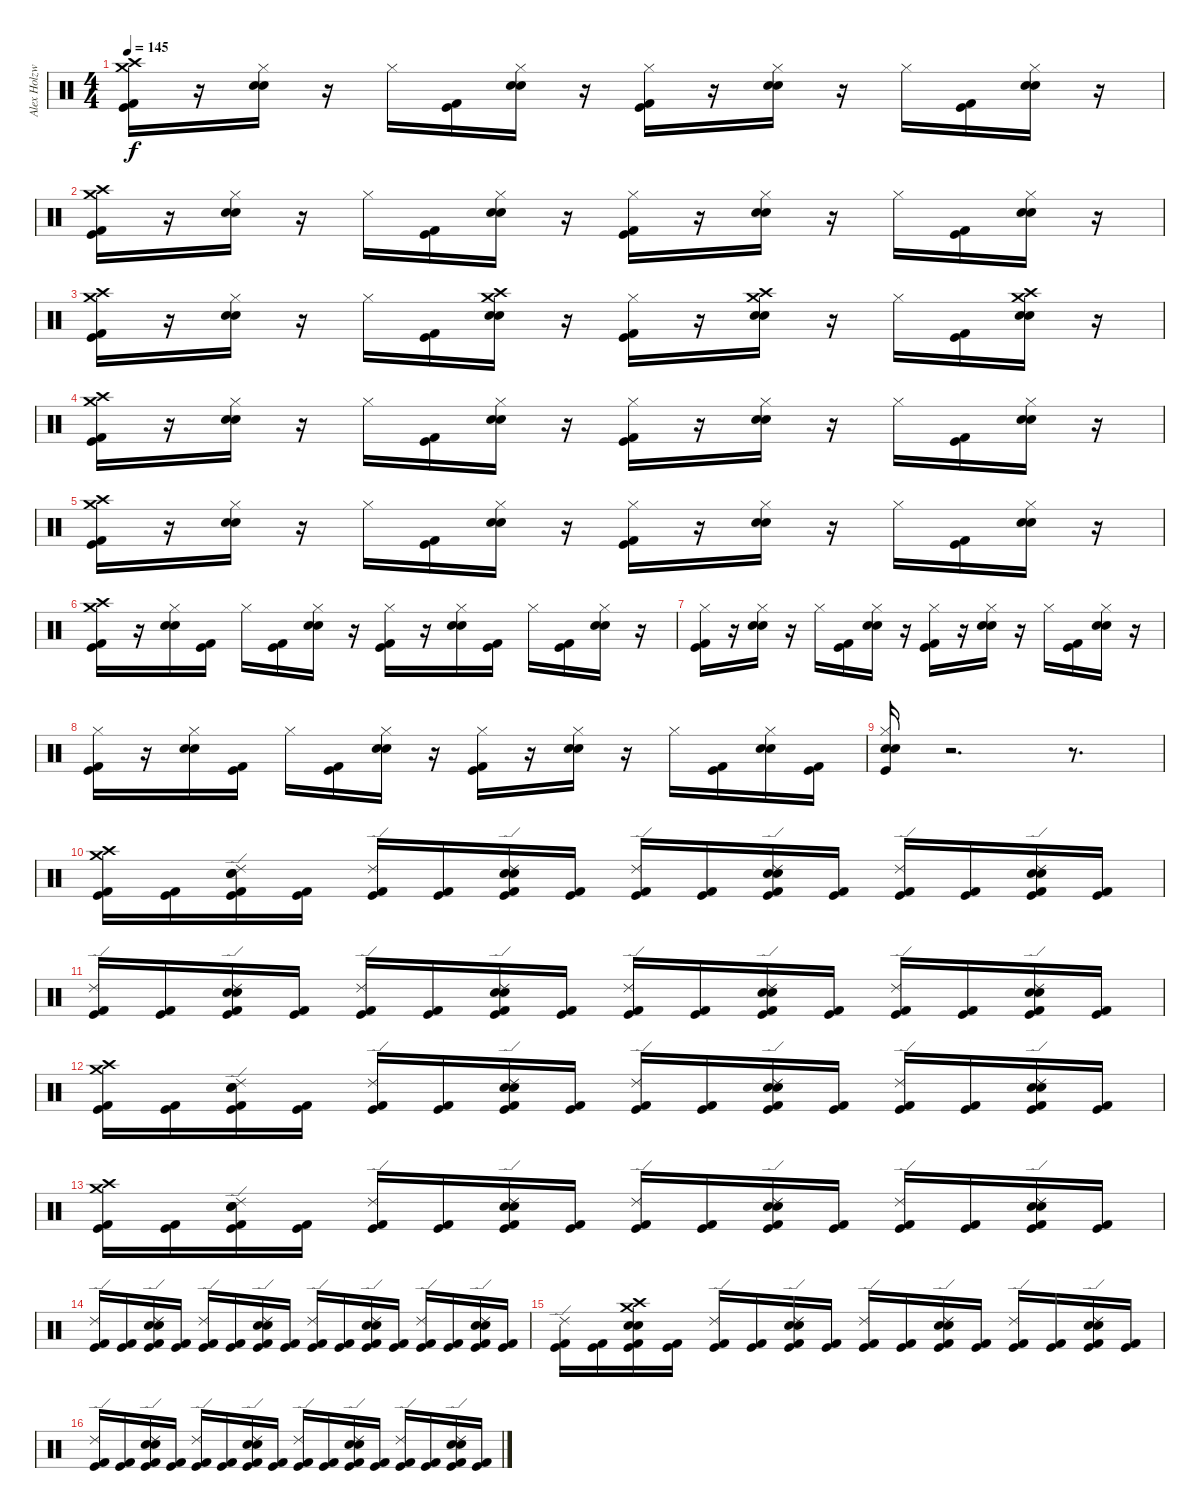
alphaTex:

\track ("Alex Holzwarth" "Alex Holzw") {instrument percussion}
\staff {score}
\articulation defaults
\ts (4 4)
\tempo 145
\clef neutral
\ks c
("Crash medium (hit)" "Crash high (hit)" "Kick (hit) 2" "Kick (hit)").16{dy f} r.16 ("Hi-Hat (closed)" "Electric Snare (hit)" "Snare (hit) 2").16 r.16 "Hi-Hat (closed)".16 ("Kick (hit) 2" "Kick (hit)").16 ("Electric Snare (hit)" "Snare (hit) 2" "Hi-Hat (closed)").16 r.16 ("Hi-Hat (closed)" "Kick (hit) 2" "Kick (hit)").16 r.16 ("Hi-Hat (closed)" "Electric Snare (hit)" "Snare (hit) 2").16 r.16 "Hi-Hat (closed)".16 ("Kick (hit) 2" "Kick (hit)").16 ("Electric Snare (hit)" "Snare (hit) 2" "Hi-Hat (closed)").16 r.16 |
("Crash medium (hit)" "Crash high (hit)" "Kick (hit) 2" "Kick (hit)").16 r.16 ("Hi-Hat (closed)" "Electric Snare (hit)" "Snare (hit) 2").16 r.16 "Hi-Hat (closed)".16 ("Kick (hit) 2" "Kick (hit)").16 ("Electric Snare (hit)" "Snare (hit) 2" "Hi-Hat (closed)").16 r.16 ("Hi-Hat (closed)" "Kick (hit) 2" "Kick (hit)").16 r.16 ("Hi-Hat (closed)" "Electric Snare (hit)" "Snare (hit) 2").16 r.16 "Hi-Hat (closed)".16 ("Kick (hit) 2" "Kick (hit)").16 ("Electric Snare (hit)" "Snare (hit) 2" "Hi-Hat (closed)").16 r.16 |
("Crash medium (hit)" "Crash high (hit)" "Kick (hit) 2" "Kick (hit)").16 r.16 ("Hi-Hat (closed)" "Electric Snare (hit)" "Snare (hit) 2").16 r.16 "Hi-Hat (closed)".16 ("Kick (hit) 2" "Kick (hit)").16 ("Crash medium (hit)" "Crash high (hit)" "Electric Snare (hit)" "Snare (hit) 2").16 r.16 ("Hi-Hat (closed)" "Kick (hit) 2" "Kick (hit)").16 r.16 ("Crash medium (hit)" "Crash high (hit)" "Electric Snare (hit)" "Snare (hit) 2").16 r.16 "Hi-Hat (closed)".16 ("Kick (hit) 2" "Kick (hit)").16 ("Crash medium (hit)" "Crash high (hit)" "Electric Snare (hit)" "Snare (hit) 2").16 r.16 |
("Crash medium (hit)" "Crash high (hit)" "Kick (hit) 2" "Kick (hit)").16 r.16 ("Hi-Hat (closed)" "Electric Snare (hit)" "Snare (hit) 2").16 r.16 "Hi-Hat (closed)".16 ("Kick (hit) 2" "Kick (hit)").16 ("Electric Snare (hit)" "Snare (hit) 2" "Hi-Hat (closed)").16 r.16 ("Hi-Hat (closed)" "Kick (hit) 2" "Kick (hit)").16 r.16 ("Hi-Hat (closed)" "Electric Snare (hit)" "Snare (hit) 2").16 r.16 "Hi-Hat (closed)".16 ("Kick (hit) 2" "Kick (hit)").16 ("Electric Snare (hit)" "Snare (hit) 2" "Hi-Hat (closed)").16 r.16 |
("Crash medium (hit)" "Crash high (hit)" "Kick (hit) 2" "Kick (hit)").16 r.16 ("Hi-Hat (closed)" "Electric Snare (hit)" "Snare (hit) 2").16 r.16 "Hi-Hat (closed)".16 ("Kick (hit) 2" "Kick (hit)").16 ("Electric Snare (hit)" "Snare (hit) 2" "Hi-Hat (closed)").16 r.16 ("Hi-Hat (closed)" "Kick (hit) 2" "Kick (hit)").16 r.16 ("Hi-Hat (closed)" "Electric Snare (hit)" "Snare (hit) 2").16 r.16 "Hi-Hat (closed)".16 ("Kick (hit) 2" "Kick (hit)").16 ("Electric Snare (hit)" "Snare (hit) 2" "Hi-Hat (closed)").16 r.16 |
("Crash medium (hit)" "Crash high (hit)" "Kick (hit) 2" "Kick (hit)").16 r.16 ("Hi-Hat (closed)" "Electric Snare (hit)" "Snare (hit) 2").16 ("Kick (hit) 2" "Kick (hit)").16 "Hi-Hat (closed)".16 ("Kick (hit) 2" "Kick (hit)").16 ("Electric Snare (hit)" "Snare (hit) 2" "Hi-Hat (closed)").16 r.16 ("Hi-Hat (closed)" "Kick (hit) 2" "Kick (hit)").16 r.16 ("Hi-Hat (closed)" "Electric Snare (hit)" "Snare (hit) 2").16 ("Kick (hit) 2" "Kick (hit)").16 "Hi-Hat (closed)".16 ("Kick (hit) 2" "Kick (hit)").16 ("Electric Snare (hit)" "Snare (hit) 2" "Hi-Hat (closed)").16 r.16 |
("Hi-Hat (closed)" "Kick (hit) 2" "Kick (hit)").16 r.16 ("Hi-Hat (closed)" "Electric Snare (hit)" "Snare (hit) 2").16 r.16 "Hi-Hat (closed)".16 ("Kick (hit) 2" "Kick (hit)").16 ("Electric Snare (hit)" "Snare (hit) 2" "Hi-Hat (closed)").16 r.16 ("Hi-Hat (closed)" "Kick (hit) 2" "Kick (hit)").16 r.16 ("Hi-Hat (closed)" "Electric Snare (hit)" "Snare (hit) 2").16 r.16 "Hi-Hat (closed)".16 ("Kick (hit) 2" "Kick (hit)").16 ("Electric Snare (hit)" "Snare (hit) 2" "Hi-Hat (closed)").16 r.16 |
("Hi-Hat (closed)" "Kick (hit) 2" "Kick (hit)").16 r.16 ("Hi-Hat (closed)" "Electric Snare (hit)" "Snare (hit) 2").16 ("Kick (hit) 2" "Kick (hit)").16 "Hi-Hat (closed)".16 ("Kick (hit) 2" "Kick (hit)").16 ("Electric Snare (hit)" "Snare (hit) 2" "Hi-Hat (closed)").16 r.16 ("Hi-Hat (closed)" "Kick (hit) 2" "Kick (hit)").16 r.16 ("Hi-Hat (closed)" "Electric Snare (hit)" "Snare (hit) 2").16 r.16 "Hi-Hat (closed)".16 ("Kick (hit) 2" "Kick (hit)").16 ("Electric Snare (hit)" "Snare (hit) 2" "Hi-Hat (closed)").16 ("Kick (hit) 2" "Kick (hit)").16 |
("Hi-Hat (closed)" "Kick (hit)" "Electric Snare (hit)" "Snare (hit) 2").16 r.2{d} r.8{d} |
("Crash high (hit)" "Crash medium (hit)" "Kick (hit) 2" "Kick (hit)").16 ("Kick (hit) 2" "Kick (hit)").16 ("Ride (edge) 2" "Electric Snare (hit)" "Snare (hit) 2" "Kick (hit) 2" "Kick (hit)").16 ("Kick (hit) 2" "Kick (hit)").16 ("Ride (edge) 2" "Kick (hit) 2" "Kick (hit)").16 ("Kick (hit) 2" "Kick (hit)").16 ("Ride (edge) 2" "Electric Snare (hit)" "Snare (hit) 2" "Kick (hit) 2" "Kick (hit)").16 ("Kick (hit) 2" "Kick (hit)").16 ("Ride (edge) 2" "Kick (hit) 2" "Kick (hit)").16 ("Kick (hit) 2" "Kick (hit)").16 ("Ride (edge) 2" "Snare (hit) 2" "Electric Snare (hit)" "Kick (hit) 2" "Kick (hit)").16 ("Kick (hit) 2" "Kick (hit)").16 ("Ride (edge) 2" "Kick (hit) 2" "Kick (hit)").16 ("Kick (hit) 2" "Kick (hit)").16 ("Ride (edge) 2" "Snare (hit) 2" "Electric Snare (hit)" "Kick (hit) 2" "Kick (hit)").16 ("Kick (hit) 2" "Kick (hit)").16 |
("Ride (edge) 2" "Kick (hit) 2" "Kick (hit)").16 ("Kick (hit) 2" "Kick (hit)").16 ("Ride (edge) 2" "Snare (hit) 2" "Electric Snare (hit)" "Kick (hit) 2" "Kick (hit)").16 ("Kick (hit) 2" "Kick (hit)").16 ("Ride (edge) 2" "Kick (hit) 2" "Kick (hit)").16 ("Kick (hit) 2" "Kick (hit)").16 ("Ride (edge) 2" "Snare (hit) 2" "Electric Snare (hit)" "Kick (hit) 2" "Kick (hit)").16 ("Kick (hit) 2" "Kick (hit)").16 ("Ride (edge) 2" "Kick (hit) 2" "Kick (hit)").16 ("Kick (hit) 2" "Kick (hit)").16 ("Ride (edge) 2" "Snare (hit) 2" "Electric Snare (hit)" "Kick (hit) 2" "Kick (hit)").16 ("Kick (hit) 2" "Kick (hit)").16 ("Ride (edge) 2" "Kick (hit) 2" "Kick (hit)").16 ("Kick (hit) 2" "Kick (hit)").16 ("Ride (edge) 2" "Snare (hit) 2" "Electric Snare (hit)" "Kick (hit) 2" "Kick (hit)").16 ("Kick (hit) 2" "Kick (hit)").16 |
("Crash high (hit)" "Crash medium (hit)" "Kick (hit) 2" "Kick (hit)").16 ("Kick (hit) 2" "Kick (hit)").16 ("Ride (edge) 2" "Snare (hit) 2" "Electric Snare (hit)" "Kick (hit) 2" "Kick (hit)").16 ("Kick (hit) 2" "Kick (hit)").16 ("Ride (edge) 2" "Kick (hit) 2" "Kick (hit)").16 ("Kick (hit) 2" "Kick (hit)").16 ("Ride (edge) 2" "Snare (hit) 2" "Electric Snare (hit)" "Kick (hit) 2" "Kick (hit)").16 ("Kick (hit) 2" "Kick (hit)").16 ("Ride (edge) 2" "Kick (hit) 2" "Kick (hit)").16 ("Kick (hit) 2" "Kick (hit)").16 ("Ride (edge) 2" "Snare (hit) 2" "Electric Snare (hit)" "Kick (hit) 2" "Kick (hit)").16 ("Kick (hit) 2" "Kick (hit)").16 ("Ride (edge) 2" "Kick (hit) 2" "Kick (hit)").16 ("Kick (hit) 2" "Kick (hit)").16 ("Ride (edge) 2" "Snare (hit) 2" "Electric Snare (hit)" "Kick (hit) 2" "Kick (hit)").16 ("Kick (hit) 2" "Kick (hit)").16 |
("Crash high (hit)" "Crash medium (hit)" "Kick (hit) 2" "Kick (hit)").16 ("Kick (hit) 2" "Kick (hit)").16 ("Ride (edge) 2" "Snare (hit) 2" "Electric Snare (hit)" "Kick (hit) 2" "Kick (hit)").16 ("Kick (hit) 2" "Kick (hit)").16 ("Ride (edge) 2" "Kick (hit) 2" "Kick (hit)").16 ("Kick (hit) 2" "Kick (hit)").16 ("Ride (edge) 2" "Snare (hit) 2" "Electric Snare (hit)" "Kick (hit) 2" "Kick (hit)").16 ("Kick (hit) 2" "Kick (hit)").16 ("Ride (edge) 2" "Kick (hit) 2" "Kick (hit)").16 ("Kick (hit) 2" "Kick (hit)").16 ("Ride (edge) 2" "Snare (hit) 2" "Electric Snare (hit)" "Kick (hit) 2" "Kick (hit)").16 ("Kick (hit) 2" "Kick (hit)").16 ("Ride (edge) 2" "Kick (hit) 2" "Kick (hit)").16 ("Kick (hit) 2" "Kick (hit)").16 ("Ride (edge) 2" "Snare (hit) 2" "Electric Snare (hit)" "Kick (hit) 2" "Kick (hit)").16 ("Kick (hit) 2" "Kick (hit)").16 |
("Ride (edge) 2" "Kick (hit) 2" "Kick (hit)").16 ("Kick (hit) 2" "Kick (hit)").16 ("Ride (edge) 2" "Snare (hit) 2" "Electric Snare (hit)" "Kick (hit) 2" "Kick (hit)").16 ("Kick (hit) 2" "Kick (hit)").16 ("Ride (edge) 2" "Kick (hit) 2" "Kick (hit)").16 ("Kick (hit) 2" "Kick (hit)").16 ("Ride (edge) 2" "Snare (hit) 2" "Electric Snare (hit)" "Kick (hit) 2" "Kick (hit)").16 ("Kick (hit) 2" "Kick (hit)").16 ("Ride (edge) 2" "Kick (hit) 2" "Kick (hit)").16 ("Kick (hit) 2" "Kick (hit)").16 ("Ride (edge) 2" "Snare (hit) 2" "Electric Snare (hit)" "Kick (hit) 2" "Kick (hit)").16 ("Kick (hit) 2" "Kick (hit)").16 ("Ride (edge) 2" "Kick (hit) 2" "Kick (hit)").16 ("Kick (hit) 2" "Kick (hit)").16 ("Ride (edge) 2" "Snare (hit) 2" "Electric Snare (hit)" "Kick (hit) 2" "Kick (hit)").16 ("Kick (hit) 2" "Kick (hit)").16 |
("Ride (edge) 2" "Kick (hit) 2" "Kick (hit)").16 ("Kick (hit) 2" "Kick (hit)").16 ("Crash high (hit)" "Crash medium (hit)" "Snare (hit) 2" "Electric Snare (hit)" "Kick (hit) 2" "Kick (hit)").16 ("Kick (hit) 2" "Kick (hit)").16 ("Ride (edge) 2" "Kick (hit) 2" "Kick (hit)").16 ("Kick (hit) 2" "Kick (hit)").16 ("Ride (edge) 2" "Snare (hit) 2" "Electric Snare (hit)" "Kick (hit) 2" "Kick (hit)").16 ("Kick (hit) 2" "Kick (hit)").16 ("Ride (edge) 2" "Kick (hit) 2" "Kick (hit)").16 ("Kick (hit) 2" "Kick (hit)").16 ("Ride (edge) 2" "Snare (hit) 2" "Electric Snare (hit)" "Kick (hit) 2" "Kick (hit)").16 ("Kick (hit) 2" "Kick (hit)").16 ("Ride (edge) 2" "Kick (hit) 2" "Kick (hit)").16 ("Kick (hit) 2" "Kick (hit)").16 ("Ride (edge) 2" "Snare (hit) 2" "Electric Snare (hit)" "Kick (hit) 2" "Kick (hit)").16 ("Kick (hit) 2" "Kick (hit)").16 |
("Ride (edge) 2" "Kick (hit) 2" "Kick (hit)").16 ("Kick (hit) 2" "Kick (hit)").16 ("Ride (edge) 2" "Snare (hit) 2" "Electric Snare (hit)" "Kick (hit) 2" "Kick (hit)").16 ("Kick (hit) 2" "Kick (hit)").16 ("Ride (edge) 2" "Kick (hit) 2" "Kick (hit)").16 ("Kick (hit) 2" "Kick (hit)").16 ("Ride (edge) 2" "Snare (hit) 2" "Electric Snare (hit)" "Kick (hit) 2" "Kick (hit)").16 ("Kick (hit) 2" "Kick (hit)").16 ("Ride (edge) 2" "Kick (hit) 2" "Kick (hit)").16 ("Kick (hit) 2" "Kick (hit)").16 ("Ride (edge) 2" "Snare (hit) 2" "Electric Snare (hit)" "Kick (hit) 2" "Kick (hit)").16 ("Kick (hit) 2" "Kick (hit)").16 ("Ride (edge) 2" "Kick (hit) 2" "Kick (hit)").16 ("Kick (hit) 2" "Kick (hit)").16 ("Ride (edge) 2" "Snare (hit) 2" "Electric Snare (hit)" "Kick (hit) 2" "Kick (hit)").16 ("Kick (hit) 2" "Kick (hit)").16
